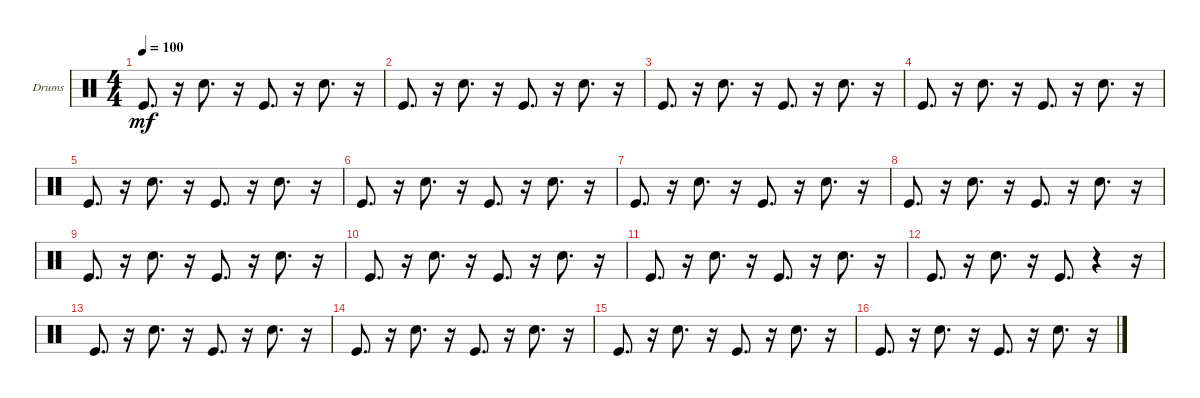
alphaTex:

\bracketExtendMode groupsimilarinstruments
\firstSystemTrackNameOrientation horizontal
\otherSystemsTrackNameOrientation horizontal
\track ("Bass Percussion" "Drums") {instrument percussion}
\staff {score}
\articulation defaults
\ts (4 4)
\tempo 100
\clef neutral
\ks c "Kick (hit)".8{d dy mf}
r.16 "Snare (hit) 2".8{d} r.16 "Kick (hit)".8{d} r.16 "Snare (hit) 2".8{d} r.16 |
"Kick (hit)".8{d} r.16 "Snare (hit) 2".8{d} r.16 "Kick (hit)".8{d} r.16 "Snare (hit) 2".8{d} r.16 |
"Kick (hit)".8{d} r.16 "Snare (hit) 2".8{d} r.16 "Kick (hit)".8{d} r.16 "Snare (hit) 2".8{d} r.16 |
"Kick (hit)".8{d} r.16 "Snare (hit) 2".8{d} r.16 "Kick (hit)".8{d} r.16 "Snare (hit) 2".8{d} r.16 |
"Kick (hit)".8{d} r.16 "Snare (hit) 2".8{d} r.16 "Kick (hit)".8{d} r.16 "Snare (hit) 2".8{d} r.16 |
"Kick (hit)".8{d} r.16 "Snare (hit) 2".8{d} r.16 "Kick (hit)".8{d} r.16 "Snare (hit) 2".8{d} r.16 |
"Kick (hit)".8{d} r.16 "Snare (hit) 2".8{d} r.16 "Kick (hit)".8{d} r.16 "Snare (hit) 2".8{d} r.16 |
"Kick (hit)".8{d} r.16 "Snare (hit) 2".8{d} r.16 "Kick (hit)".8{d} r.16 "Snare (hit) 2".8{d} r.16 |
"Kick (hit)".8{d} r.16 "Snare (hit) 2".8{d} r.16 "Kick (hit)".8{d} r.16 "Snare (hit) 2".8{d} r.16 |
"Kick (hit)".8{d} r.16 "Snare (hit) 2".8{d} r.16 "Kick (hit)".8{d} r.16 "Snare (hit) 2".8{d} r.16 |
"Kick (hit)".8{d} r.16 "Snare (hit) 2".8{d} r.16 "Kick (hit)".8{d} r.16 "Snare (hit) 2".8{d} r.16 |
"Kick (hit)".8{d} r.16 "Snare (hit) 2".8{d} r.16 "Kick (hit)".8{d} r.4 r.16 |
"Kick (hit)".8{d} r.16 "Snare (hit) 2".8{d} r.16 "Kick (hit)".8{d} r.16 "Snare (hit) 2".8{d} r.16 |
"Kick (hit)".8{d} r.16 "Snare (hit) 2".8{d} r.16 "Kick (hit)".8{d} r.16 "Snare (hit) 2".8{d} r.16 |
"Kick (hit)".8{d} r.16 "Snare (hit) 2".8{d} r.16 "Kick (hit)".8{d} r.16 "Snare (hit) 2".8{d} r.16 |
"Kick (hit)".8{d} r.16 "Snare (hit) 2".8{d} r.16 "Kick (hit)".8{d} r.16 "Snare (hit) 2".8{d} r.16
